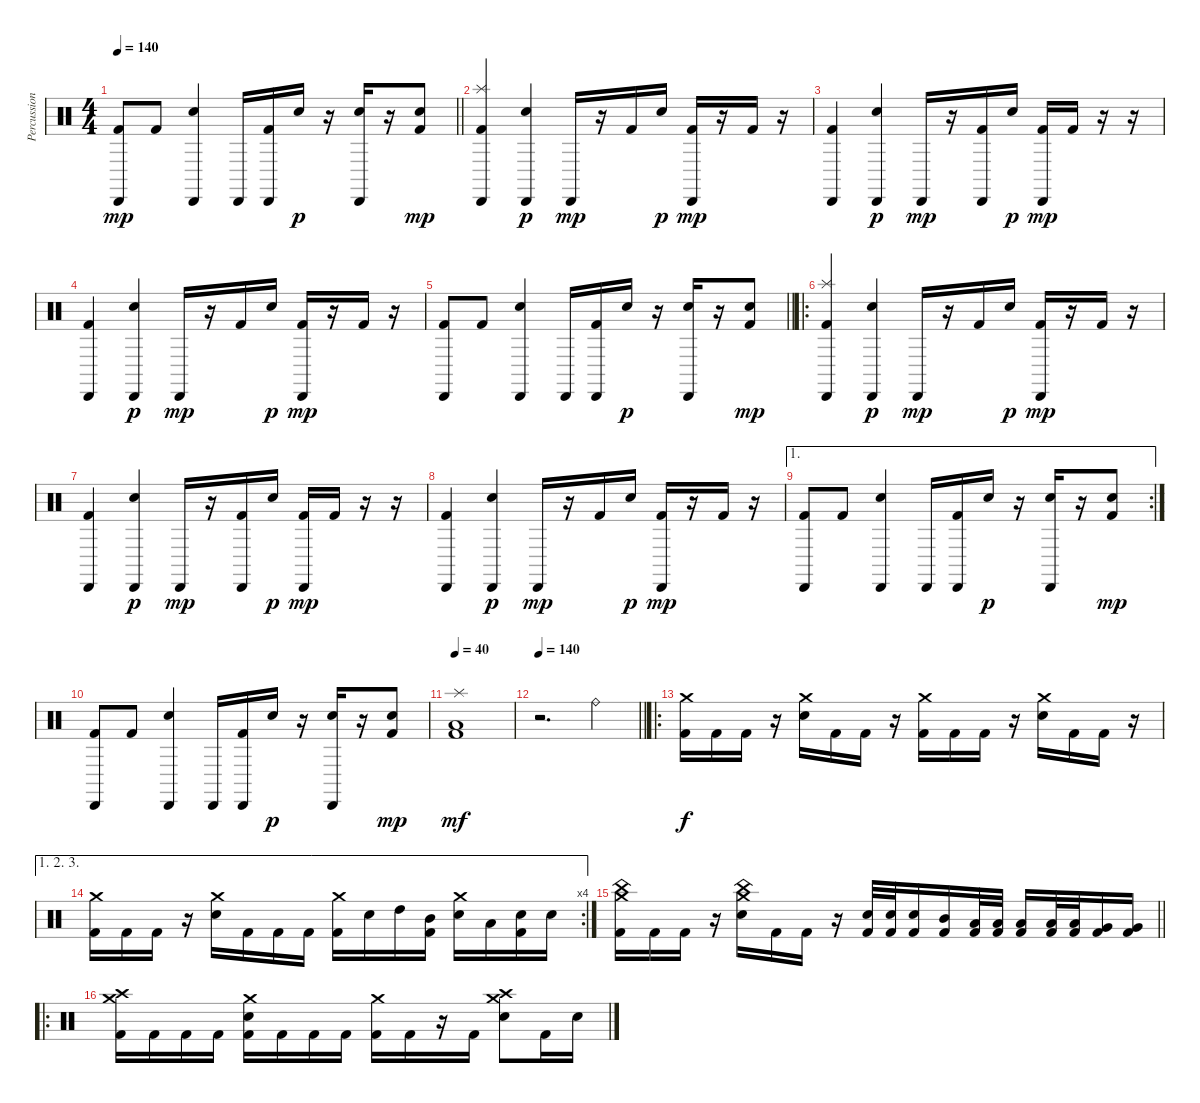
\track ("Percussions" "Percussion") {instrument percussion}
\staff {score}
\articulation defaults
\ts (4 4)
\tempo 140
\clef neutral
\barLineRight lightlight
\ks c
("Cabasa (hit)" "Kick (hit) 2").8{dy mp} "Kick (hit) 2".8 ("Cabasa (hit)" "Snare (hit) 2").4 "Cabasa (hit)".16 ("Cabasa (hit)" "Kick (hit) 2").16 "Snare (hit) 2".16{dy p} r.16 ("Cabasa (hit)" "Snare (hit) 2").16 r.16 ("Snare (hit) 2" "Kick (hit) 2").8{dy mp} |
("Cabasa (hit)" "Splash (hit)" "Kick (hit) 2").4 ("Cabasa (hit)" "Snare (hit) 2").4{dy p} "Cabasa (hit)".16{dy mp} r.16 "Kick (hit) 2".16 "Snare (hit) 2".16{dy p} ("Cabasa (hit)" "Kick (hit) 2").16{dy mp} r.16 "Kick (hit) 2".16 r.16 |
("Cabasa (hit)" "Kick (hit) 2").4 ("Cabasa (hit)" "Snare (hit) 2").4{dy p} "Cabasa (hit)".16{dy mp} r.16 ("Cabasa (hit)" "Kick (hit) 2").16 "Snare (hit) 2".16{dy p} ("Cabasa (hit)" "Kick (hit) 2").16{dy mp} "Kick (hit) 2".16 r.16 r.16 |
("Cabasa (hit)" "Kick (hit) 2").4 ("Cabasa (hit)" "Snare (hit) 2").4{dy p} "Cabasa (hit)".16{dy mp} r.16 "Kick (hit) 2".16 "Snare (hit) 2".16{dy p} ("Cabasa (hit)" "Kick (hit) 2").16{dy mp} r.16 "Kick (hit) 2".16 r.16 |
\barLineRight lightlight
("Cabasa (hit)" "Kick (hit) 2").8 "Kick (hit) 2".8 ("Cabasa (hit)" "Snare (hit) 2").4 "Cabasa (hit)".16 ("Cabasa (hit)" "Kick (hit) 2").16 "Snare (hit) 2".16{dy p} r.16 ("Cabasa (hit)" "Snare (hit) 2").16 r.16 ("Snare (hit) 2" "Kick (hit) 2").8{dy mp} |
\ro
\section ("" "")
("Cabasa (hit)" "Splash (hit)" "Kick (hit) 2").4 ("Cabasa (hit)" "Snare (hit) 2").4{dy p} "Cabasa (hit)".16{dy mp} r.16 "Kick (hit) 2".16 "Snare (hit) 2".16{dy p} ("Cabasa (hit)" "Kick (hit) 2").16{dy mp} r.16 "Kick (hit) 2".16 r.16 |
("Cabasa (hit)" "Kick (hit) 2").4 ("Cabasa (hit)" "Snare (hit) 2").4{dy p} "Cabasa (hit)".16{dy mp} r.16 ("Cabasa (hit)" "Kick (hit) 2").16 "Snare (hit) 2".16{dy p} ("Cabasa (hit)" "Kick (hit) 2").16{dy mp} "Kick (hit) 2".16 r.16 r.16 |
("Cabasa (hit)" "Kick (hit) 2").4 ("Cabasa (hit)" "Snare (hit) 2").4{dy p} "Cabasa (hit)".16{dy mp} r.16 "Kick (hit) 2".16 "Snare (hit) 2".16{dy p} ("Cabasa (hit)" "Kick (hit) 2").16{dy mp} r.16 "Kick (hit) 2".16 r.16 |
\ae 1
\rc 2
("Cabasa (hit)" "Kick (hit) 2").8 "Kick (hit) 2".8 ("Cabasa (hit)" "Snare (hit) 2").4 "Cabasa (hit)".16 ("Cabasa (hit)" "Kick (hit) 2").16 "Snare (hit) 2".16{dy p} r.16 ("Cabasa (hit)" "Snare (hit) 2").16 r.16 ("Snare (hit) 2" "Kick (hit) 2").8{dy mp} |
("Cabasa (hit)" "Kick (hit) 2").8 "Kick (hit) 2".8 ("Cabasa (hit)" "Snare (hit) 2").4 "Cabasa (hit)".16 ("Cabasa (hit)" "Kick (hit) 2").16 "Snare (hit) 2".16{dy p} r.16 ("Cabasa (hit)" "Snare (hit) 2").16 r.16 ("Snare (hit) 2" "Kick (hit) 2").8{dy mp} |
\tempo 40
("Splash (hit)" "Low Floor Tom (hit)" "Kick (hit) 2").1{dy mf} |
\tempo 140
\barLineRight lightlight
r.2{d} "Ride (bell)".4 |
\ro
\section ("" "")
("Crash medium (hit)" "Kick (hit) 2").16{dy f} "Kick (hit) 2".16 "Kick (hit) 2".16 r.16 ("Crash medium (hit)" "Electric Snare (hit)").16 "Kick (hit) 2".16 "Kick (hit) 2".16 r.16 ("Crash medium (hit)" "Kick (hit) 2").16 "Kick (hit) 2".16 "Kick (hit) 2".16 r.16 ("Crash medium (hit)" "Electric Snare (hit)").16 "Kick (hit) 2".16 "Kick (hit) 2".16 r.16 |
\ae (1 2 3)
\rc 4
("Crash medium (hit)" "Kick (hit) 2").16 "Kick (hit) 2".16 "Kick (hit) 2".16 r.16 ("Crash medium (hit)" "Electric Snare (hit)").16 "Kick (hit) 2".16 "Kick (hit) 2".16 "Kick (hit) 2".16 ("Crash medium (hit)" "Kick (hit) 2").16 "Electric Snare (hit)".16 "High Tom (hit)".16 ("Mid Tom (hit)" "Kick (hit) 2").16 ("Crash medium (hit)" "Electric Snare (hit)").16 "Low Tom (hit)".16 ("Electric Snare (hit)" "Kick (hit) 2").16 "Electric Snare (hit)".16 |
\barLineRight lightlight
("Crash medium (hit)" "China (hit)" "Kick (hit) 2").16 "Kick (hit) 2".16 "Kick (hit) 2".16 r.16 ("Crash medium (hit)" "China (hit)" "Electric Snare (hit)").16 "Kick (hit) 2".16 "Kick (hit) 2".16 r.16 ("Electric Snare (hit)" "Kick (hit) 2").32 ("Electric Snare (hit)" "Kick (hit) 2").32 ("Electric Snare (hit)" "Kick (hit) 2").16 ("Mid Tom (hit)" "Kick (hit) 2").16 ("Low Tom (hit)" "Kick (hit) 2").32 ("Low Tom (hit)" "Kick (hit) 2").32 ("Low Tom (hit)" "Kick (hit) 2").16 ("Low Tom (hit)" "Kick (hit) 2").32 ("Low Tom (hit)" "Kick (hit) 2").32 ("Very Low Tom (hit)" "Kick (hit) 2").16 ("Very Low Tom (hit)" "Kick (hit) 2").16 |
\ro
\section ("" "")
("Crash medium (hit)" "Crash high (hit)" "Kick (hit) 2").16 "Kick (hit) 2".16 "Kick (hit) 2".16 "Kick (hit) 2".16 ("Crash medium (hit)" "Snare (hit) 2" "Kick (hit) 2").16 "Kick (hit) 2".16 "Kick (hit) 2".16 "Kick (hit) 2".16 ("Crash medium (hit)" "Kick (hit) 2").16 "Kick (hit) 2".16 r.16 "Kick (hit) 2".16 ("Crash medium (hit)" "Crash high (hit)" "Snare (hit) 2").8 "Kick (hit) 2".16 "Snare (hit) 2".16
